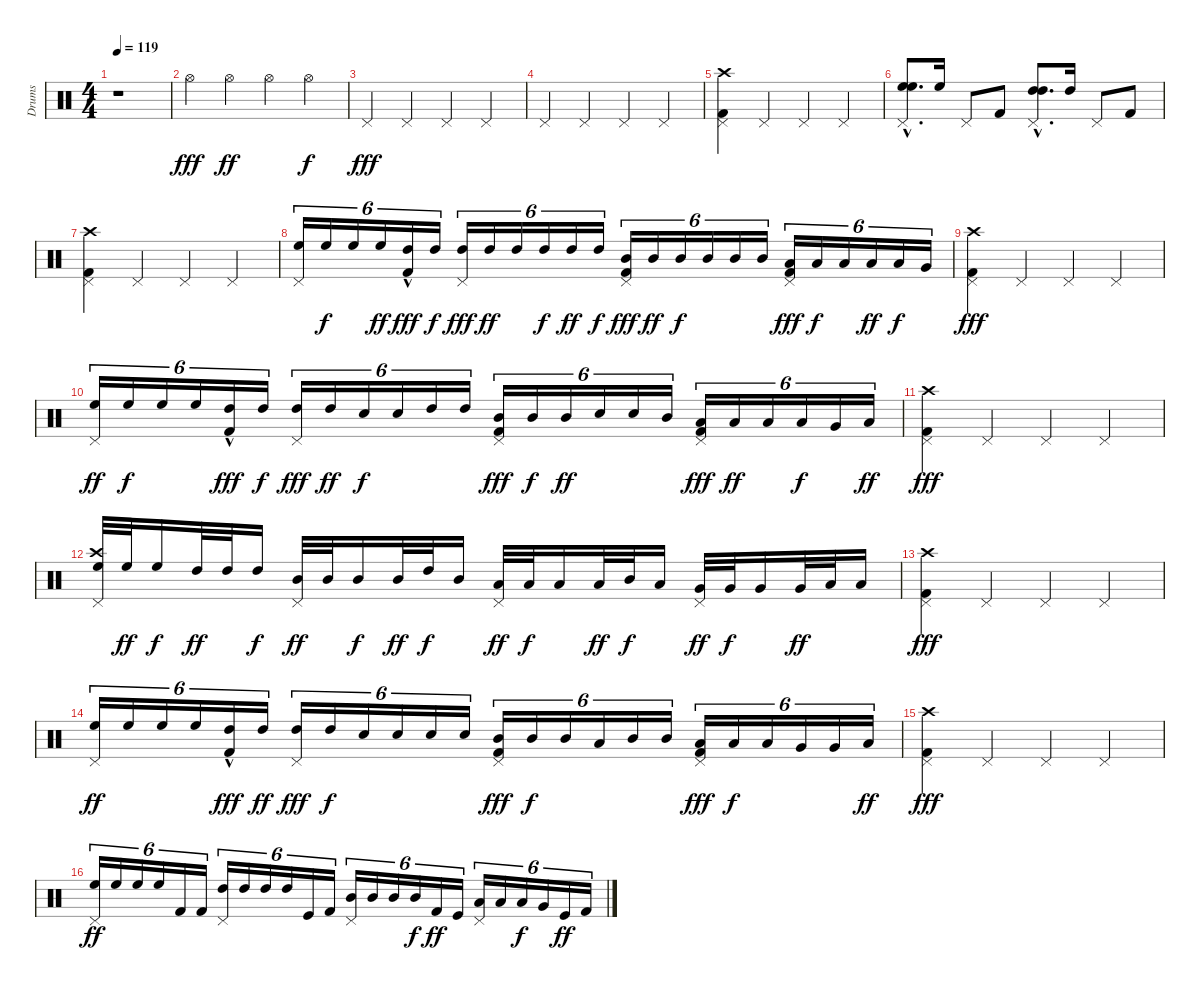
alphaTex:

\track ("Drums" "Drums") {instrument percussion}
\staff {score}
\articulation defaults
\ts (4 4)
\tempo 119
\clef neutral
\ks c
r.1{dy fff} |
"Hi-Hat (open)".4 "Hi-Hat (open)".4{dy ff} "Hi-Hat (open)".4 "Hi-Hat (open)".4{dy f} |
"Pedal Hi-Hat (hit)".4{dy fff} "Pedal Hi-Hat (hit)".4 "Pedal Hi-Hat (hit)".4 "Pedal Hi-Hat (hit)".4 |
"Pedal Hi-Hat (hit)".4 "Pedal Hi-Hat (hit)".4 "Pedal Hi-Hat (hit)".4 "Pedal Hi-Hat (hit)".4 |
("Pedal Hi-Hat (hit)" "Kick (hit) 2" "Crash high (hit)").4 "Pedal Hi-Hat (hit)".4 "Pedal Hi-Hat (hit)".4 "Pedal Hi-Hat (hit)".4 |
("Pedal Hi-Hat (hit)" "High Floor Tom (hit)"{hac} "High Floor Tom (hit)"{hac}).8{d} "High Floor Tom (hit)".16 "Pedal Hi-Hat (hit)".8 "Kick (hit) 2".8 ("Pedal Hi-Hat (hit)" "High Tom (hit)"{hac} "High Tom (hit)"{hac}).8{d} "High Tom (hit)".16 "Pedal Hi-Hat (hit)".8 "Kick (hit) 2".8 |
("Pedal Hi-Hat (hit)" "Kick (hit) 2" "Crash high (hit)").4 "Pedal Hi-Hat (hit)".4 "Pedal Hi-Hat (hit)".4 "Pedal Hi-Hat (hit)".4 |
("Pedal Hi-Hat (hit)" "High Floor Tom (hit)").16{tu (6 4)} "High Floor Tom (hit)".16{tu (6 4) dy f} "High Floor Tom (hit)".16{tu (6 4)} "High Floor Tom (hit)".16{tu (6 4) dy ff} ("High Tom (hit)" "Kick (hit) 2"{hac}).16{tu (6 4) dy fff} "High Tom (hit)".16{tu (6 4) dy f} ("Pedal Hi-Hat (hit)" "High Tom (hit)").16{tu (6 4) dy fff} "High Tom (hit)".16{tu (6 4) dy ff} "High Tom (hit)".16{tu (6 4)} "High Tom (hit)".16{tu (6 4) dy f} "High Tom (hit)".16{tu (6 4) dy ff} "High Tom (hit)".16{tu (6 4) dy f} ("Pedal Hi-Hat (hit)" "Mid Tom (hit)" "Kick (hit) 2").16{tu (6 4) dy fff} "Mid Tom (hit)".16{tu (6 4) dy ff} "Mid Tom (hit)".16{tu (6 4) dy f} "Mid Tom (hit)".16{tu (6 4)} "Mid Tom (hit)".16{tu (6 4)} "Mid Tom (hit)".16{tu (6 4)} ("Pedal Hi-Hat (hit)" "Low Tom (hit)" "Kick (hit) 2").16{tu (6 4) dy fff} "Low Tom (hit)".16{tu (6 4) dy f} "Low Tom (hit)".16{tu (6 4)} "Low Tom (hit)".16{tu (6 4) dy ff} "Low Tom (hit)".16{tu (6 4) dy f} "Very Low Tom (hit)".16{tu (6 4)} |
("Pedal Hi-Hat (hit)" "Kick (hit) 2" "Crash high (hit)").4{dy fff} "Pedal Hi-Hat (hit)".4 "Pedal Hi-Hat (hit)".4 "Pedal Hi-Hat (hit)".4 |
("Pedal Hi-Hat (hit)" "High Floor Tom (hit)").16{tu (6 4) dy ff} "High Floor Tom (hit)".16{tu (6 4) dy f} "High Floor Tom (hit)".16{tu (6 4)} "High Floor Tom (hit)".16{tu (6 4)} ("High Tom (hit)" "Kick (hit) 2"{hac}).16{tu (6 4) dy fff} "High Tom (hit)".16{tu (6 4) dy f} ("Pedal Hi-Hat (hit)" "High Tom (hit)").16{tu (6 4) dy fff} "High Tom (hit)".16{tu (6 4) dy ff} "Snare (hit) 2".16{tu (6 4) dy f} "Snare (hit) 2".16{tu (6 4)} "High Tom (hit)".16{tu (6 4)} "High Tom (hit)".16{tu (6 4)} ("Pedal Hi-Hat (hit)" "Mid Tom (hit)" "Kick (hit) 2").16{tu (6 4) dy fff} "Mid Tom (hit)".16{tu (6 4) dy f} "Mid Tom (hit)".16{tu (6 4) dy ff} "Snare (hit) 2".16{tu (6 4)} "Electric Snare (hit)".16{tu (6 4)} "Mid Tom (hit)".16{tu (6 4)} ("Pedal Hi-Hat (hit)" "Low Tom (hit)" "Kick (hit) 2").16{tu (6 4) dy fff} "Low Tom (hit)".16{tu (6 4) dy ff} "Low Tom (hit)".16{tu (6 4)} "Low Tom (hit)".16{tu (6 4) dy f} "Very Low Tom (hit)".16{tu (6 4)} "Low Floor Tom (hit)".16{tu (6 4) dy ff} |
("Pedal Hi-Hat (hit)" "Kick (hit) 2" "Crash high (hit)").4{dy fff} "Pedal Hi-Hat (hit)".4 "Pedal Hi-Hat (hit)".4 "Pedal Hi-Hat (hit)".4 |
("Pedal Hi-Hat (hit)" "High Floor Tom (hit)" "Crash high (hit)").32 "High Floor Tom (hit)".32{dy ff} "High Floor Tom (hit)".16{dy f} "High Tom (hit)".32{dy ff} "High Tom (hit)".32 "High Tom (hit)".16{dy f} ("Pedal Hi-Hat (hit)" "Mid Tom (hit)").32{dy ff} "Mid Tom (hit)".32 "Mid Tom (hit)".16{dy f} "Mid Tom (hit)".32{dy ff} "High Tom (hit)".32{dy f} "Mid Tom (hit)".16 ("Pedal Hi-Hat (hit)" "Low Tom (hit)").32{dy ff} "Low Tom (hit)".32{dy f} "Low Tom (hit)".16 "Low Tom (hit)".32{dy ff} "Mid Tom (hit)".32{dy f} "Low Tom (hit)".16 ("Pedal Hi-Hat (hit)" "Very Low Tom (hit)").32{dy ff} "Very Low Tom (hit)".32{dy f} "Very Low Tom (hit)".16 "Very Low Tom (hit)".32{dy ff} "Low Tom (hit)".32 "Low Floor Tom (hit)".16 |
("Pedal Hi-Hat (hit)" "Kick (hit) 2" "Crash high (hit)").4{dy fff} "Pedal Hi-Hat (hit)".4 "Pedal Hi-Hat (hit)".4 "Pedal Hi-Hat (hit)".4 |
("Pedal Hi-Hat (hit)" "High Floor Tom (hit)").16{tu (6 4) dy ff} "High Floor Tom (hit)".16{tu (6 4)} "High Floor Tom (hit)".16{tu (6 4)} "High Floor Tom (hit)".16{tu (6 4)} ("High Tom (hit)" "Kick (hit) 2"{hac}).16{tu (6 4) dy fff} "High Tom (hit)".16{tu (6 4) dy ff} ("Pedal Hi-Hat (hit)" "High Tom (hit)").16{tu (6 4) dy fff} "High Tom (hit)".16{tu (6 4) dy f} "Snare (hit) 2".16{tu (6 4)} "Snare (hit) 2".16{tu (6 4)} "Electric Snare (hit)".16{tu (6 4)} "Snare (hit) 2".16{tu (6 4)} ("Pedal Hi-Hat (hit)" "Mid Tom (hit)" "Kick (hit) 2").16{tu (6 4) dy fff} "Mid Tom (hit)".16{tu (6 4) dy f} "Mid Tom (hit)".16{tu (6 4)} "Low Tom (hit)".16{tu (6 4)} "Mid Tom (hit)".16{tu (6 4)} "Mid Tom (hit)".16{tu (6 4)} ("Pedal Hi-Hat (hit)" "Low Tom (hit)" "Kick (hit) 2").16{tu (6 4) dy fff} "Low Tom (hit)".16{tu (6 4) dy f} "Low Tom (hit)".16{tu (6 4)} "Very Low Tom (hit)".16{tu (6 4)} "Very Low Tom (hit)".16{tu (6 4)} "Low Floor Tom (hit)".16{tu (6 4) dy ff} |
("Pedal Hi-Hat (hit)" "Kick (hit) 2" "Crash high (hit)").4{dy fff} "Pedal Hi-Hat (hit)".4 "Pedal Hi-Hat (hit)".4 "Pedal Hi-Hat (hit)".4 |
("Pedal Hi-Hat (hit)" "High Floor Tom (hit)").16{tu (6 4) dy ff} "High Floor Tom (hit)".16{tu (6 4)} "High Floor Tom (hit)".16{tu (6 4)} "High Floor Tom (hit)".16{tu (6 4)} "Kick (hit) 2".16{tu (6 4)} "Kick (hit) 2".16{tu (6 4)} ("Pedal Hi-Hat (hit)" "High Tom (hit)").16{tu (6 4)} "High Tom (hit)".16{tu (6 4)} "High Tom (hit)".16{tu (6 4)} "High Tom (hit)".16{tu (6 4)} "Kick (hit)".16{tu (6 4)} "Kick (hit) 2".16{tu (6 4)} ("Pedal Hi-Hat (hit)" "Mid Tom (hit)").16{tu (6 4)} "Mid Tom (hit)".16{tu (6 4)} "Mid Tom (hit)".16{tu (6 4)} "Mid Tom (hit)".16{tu (6 4) dy f} "Kick (hit) 2".16{tu (6 4) dy ff} "Kick (hit)".16{tu (6 4)} ("Pedal Hi-Hat (hit)" "Low Tom (hit)").16{tu (6 4)} "Low Tom (hit)".16{tu (6 4)} "Low Tom (hit)".16{tu (6 4) dy f} "Very Low Tom (hit)".16{tu (6 4)} "Kick (hit)".16{tu (6 4) dy ff} "Kick (hit) 2".16{tu (6 4)}
